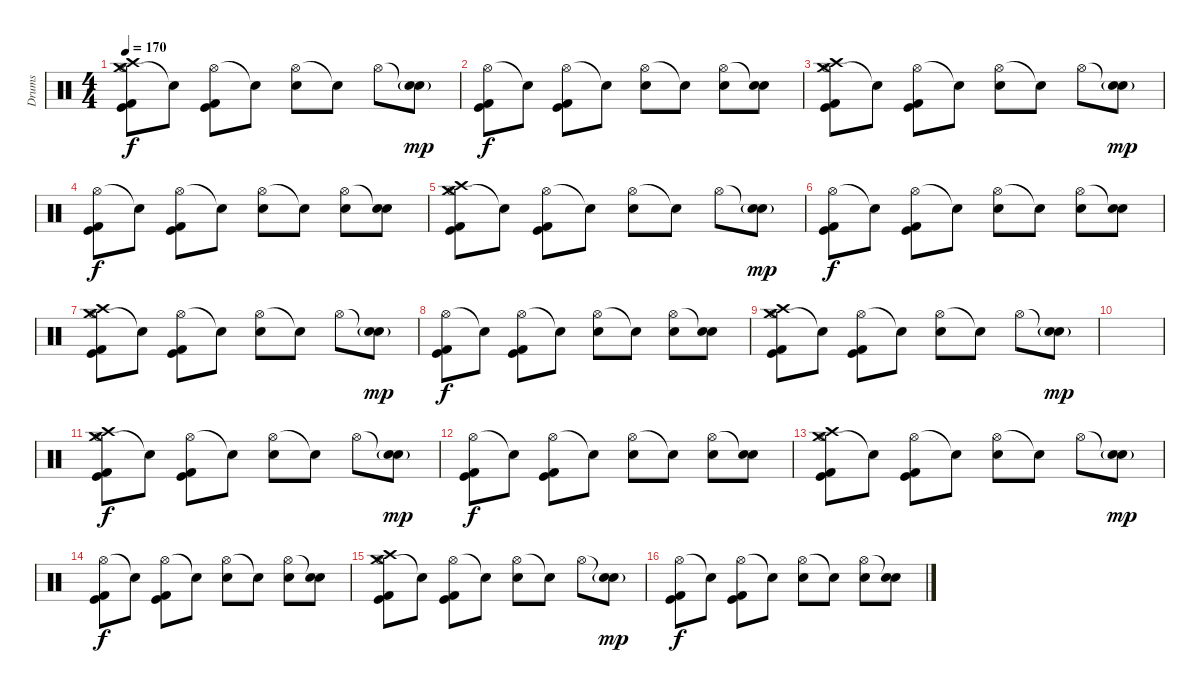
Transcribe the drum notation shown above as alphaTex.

\track ("Drums" "Drums") {instrument percussion}
\staff {score}
\articulation defaults
\ts (4 4)
\tempo 170
\clef neutral
\ks c
("Hi-Hat (open)" "Crash high (hit)" "Crash medium (hit)" "Kick (hit)" "Kick (hit) 2").8{dy f} "Snare (hit)"{t}.8 ("Hi-Hat (open)" "Kick (hit)" "Kick (hit) 2").8 "Snare (hit)"{t}.8 ("Hi-Hat (open)" "Electric Snare (hit)").8 "Snare (hit)"{t}.8 "Hi-Hat (open)".8 ("Snare (hit)"{t} "Electric Snare (hit)"{g}).8{dy mp} |
("Hi-Hat (open)" "Kick (hit)" "Kick (hit) 2").8{dy f} "Snare (hit)"{t}.8 ("Hi-Hat (open)" "Kick (hit)" "Kick (hit) 2").8 "Snare (hit)"{t}.8 ("Hi-Hat (open)" "Electric Snare (hit)").8 "Snare (hit)"{t}.8 ("Hi-Hat (open)" "Electric Snare (hit)").8 ("Snare (hit)"{t} "Electric Snare (hit)").8 |
("Hi-Hat (open)" "Crash high (hit)" "Crash medium (hit)" "Kick (hit)" "Kick (hit) 2").8 "Snare (hit)"{t}.8 ("Hi-Hat (open)" "Kick (hit)" "Kick (hit) 2").8 "Snare (hit)"{t}.8 ("Hi-Hat (open)" "Electric Snare (hit)").8 "Snare (hit)"{t}.8 "Hi-Hat (open)".8 ("Snare (hit)"{t} "Electric Snare (hit)"{g}).8{dy mp} |
("Hi-Hat (open)" "Kick (hit)" "Kick (hit) 2").8{dy f} "Snare (hit)"{t}.8 ("Hi-Hat (open)" "Kick (hit)" "Kick (hit) 2").8 "Snare (hit)"{t}.8 ("Hi-Hat (open)" "Electric Snare (hit)").8 "Snare (hit)"{t}.8 ("Hi-Hat (open)" "Electric Snare (hit)").8 ("Snare (hit)"{t} "Electric Snare (hit)").8 |
("Hi-Hat (open)" "Crash high (hit)" "Crash medium (hit)" "Kick (hit)" "Kick (hit) 2").8 "Snare (hit)"{t}.8 ("Hi-Hat (open)" "Kick (hit)" "Kick (hit) 2").8 "Snare (hit)"{t}.8 ("Hi-Hat (open)" "Electric Snare (hit)").8 "Snare (hit)"{t}.8 "Hi-Hat (open)".8 ("Snare (hit)"{t} "Electric Snare (hit)"{g}).8{dy mp} |
("Hi-Hat (open)" "Kick (hit)" "Kick (hit) 2").8{dy f} "Snare (hit)"{t}.8 ("Hi-Hat (open)" "Kick (hit)" "Kick (hit) 2").8 "Snare (hit)"{t}.8 ("Hi-Hat (open)" "Electric Snare (hit)").8 "Snare (hit)"{t}.8 ("Hi-Hat (open)" "Electric Snare (hit)").8 ("Snare (hit)"{t} "Electric Snare (hit)").8 |
("Hi-Hat (open)" "Crash high (hit)" "Crash medium (hit)" "Kick (hit)" "Kick (hit) 2").8 "Snare (hit)"{t}.8 ("Hi-Hat (open)" "Kick (hit)" "Kick (hit) 2").8 "Snare (hit)"{t}.8 ("Hi-Hat (open)" "Electric Snare (hit)").8 "Snare (hit)"{t}.8 "Hi-Hat (open)".8 ("Snare (hit)"{t} "Electric Snare (hit)"{g}).8{dy mp} |
("Hi-Hat (open)" "Kick (hit)" "Kick (hit) 2").8{dy f} "Snare (hit)"{t}.8 ("Hi-Hat (open)" "Kick (hit)" "Kick (hit) 2").8 "Snare (hit)"{t}.8 ("Hi-Hat (open)" "Electric Snare (hit)").8 "Snare (hit)"{t}.8 ("Hi-Hat (open)" "Electric Snare (hit)").8 ("Snare (hit)"{t} "Electric Snare (hit)").8 |
("Hi-Hat (open)" "Crash high (hit)" "Crash medium (hit)" "Kick (hit)" "Kick (hit) 2").8 "Snare (hit)"{t}.8 ("Hi-Hat (open)" "Kick (hit)" "Kick (hit) 2").8 "Snare (hit)"{t}.8 ("Hi-Hat (open)" "Electric Snare (hit)").8 "Snare (hit)"{t}.8 "Hi-Hat (open)".8 ("Snare (hit)"{t} "Electric Snare (hit)"{g}).8{dy mp} |
|
("Hi-Hat (open)" "Crash high (hit)" "Crash medium (hit)" "Kick (hit)" "Kick (hit) 2").8{dy f} "Snare (hit)"{t}.8 ("Hi-Hat (open)" "Kick (hit)" "Kick (hit) 2").8 "Snare (hit)"{t}.8 ("Hi-Hat (open)" "Electric Snare (hit)").8 "Snare (hit)"{t}.8 "Hi-Hat (open)".8 ("Snare (hit)"{t} "Electric Snare (hit)"{g}).8{dy mp} |
("Hi-Hat (open)" "Kick (hit)" "Kick (hit) 2").8{dy f} "Snare (hit)"{t}.8 ("Hi-Hat (open)" "Kick (hit)" "Kick (hit) 2").8 "Snare (hit)"{t}.8 ("Hi-Hat (open)" "Electric Snare (hit)").8 "Snare (hit)"{t}.8 ("Hi-Hat (open)" "Electric Snare (hit)").8 ("Snare (hit)"{t} "Electric Snare (hit)").8 |
("Hi-Hat (open)" "Crash high (hit)" "Crash medium (hit)" "Kick (hit)" "Kick (hit) 2").8 "Snare (hit)"{t}.8 ("Hi-Hat (open)" "Kick (hit)" "Kick (hit) 2").8 "Snare (hit)"{t}.8 ("Hi-Hat (open)" "Electric Snare (hit)").8 "Snare (hit)"{t}.8 "Hi-Hat (open)".8 ("Snare (hit)"{t} "Electric Snare (hit)"{g}).8{dy mp} |
("Hi-Hat (open)" "Kick (hit)" "Kick (hit) 2").8{dy f} "Snare (hit)"{t}.8 ("Hi-Hat (open)" "Kick (hit)" "Kick (hit) 2").8 "Snare (hit)"{t}.8 ("Hi-Hat (open)" "Electric Snare (hit)").8 "Snare (hit)"{t}.8 ("Hi-Hat (open)" "Electric Snare (hit)").8 ("Snare (hit)"{t} "Electric Snare (hit)").8 |
("Hi-Hat (open)" "Crash high (hit)" "Crash medium (hit)" "Kick (hit)" "Kick (hit) 2").8 "Snare (hit)"{t}.8 ("Hi-Hat (open)" "Kick (hit)" "Kick (hit) 2").8 "Snare (hit)"{t}.8 ("Hi-Hat (open)" "Electric Snare (hit)").8 "Snare (hit)"{t}.8 "Hi-Hat (open)".8 ("Snare (hit)"{t} "Electric Snare (hit)"{g}).8{dy mp} |
("Hi-Hat (open)" "Kick (hit)" "Kick (hit) 2").8{dy f} "Snare (hit)"{t}.8 ("Hi-Hat (open)" "Kick (hit)" "Kick (hit) 2").8 "Snare (hit)"{t}.8 ("Hi-Hat (open)" "Electric Snare (hit)").8 "Snare (hit)"{t}.8 ("Hi-Hat (open)" "Electric Snare (hit)").8 ("Snare (hit)"{t} "Electric Snare (hit)").8
